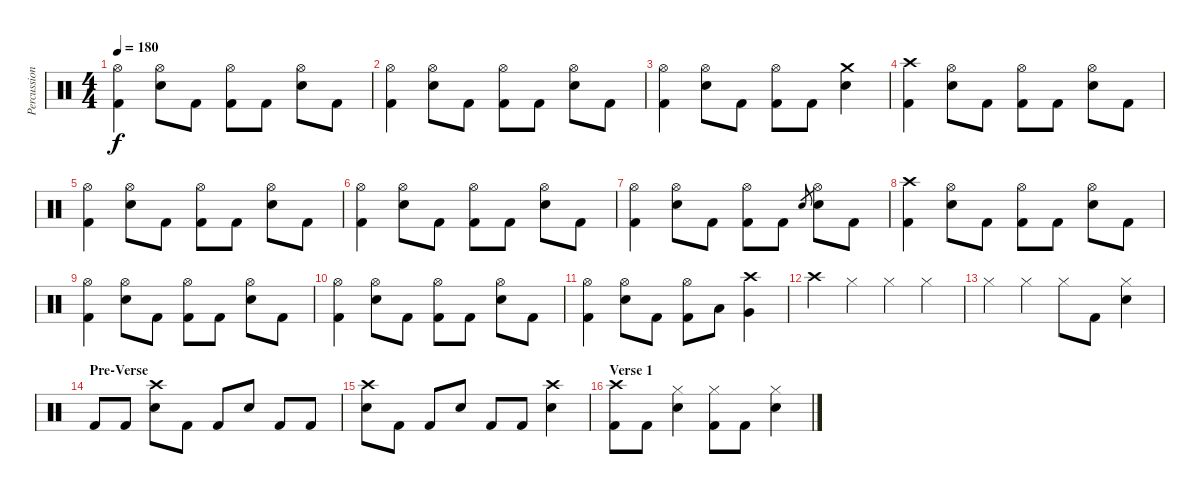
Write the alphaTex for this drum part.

\track ("Percussion" "Percussion") {instrument percussion}
\staff {score}
\articulation defaults
\ts (4 4)
\tempo 180
\clef neutral
\ks c
("Hi-Hat (open)" "Kick (hit) 2").4{dy f} ("Hi-Hat (open)" "Electric Snare (hit)").8 "Kick (hit) 2".8 ("Hi-Hat (open)" "Kick (hit) 2").8 "Kick (hit) 2".8 ("Hi-Hat (open)" "Electric Snare (hit)").8 "Kick (hit) 2".8 |
("Hi-Hat (open)" "Kick (hit) 2").4 ("Hi-Hat (open)" "Electric Snare (hit)").8 "Kick (hit) 2".8 ("Hi-Hat (open)" "Kick (hit) 2").8 "Kick (hit) 2".8 ("Hi-Hat (open)" "Electric Snare (hit)").8 "Kick (hit) 2".8 |
("Hi-Hat (open)" "Kick (hit) 2").4 ("Hi-Hat (open)" "Electric Snare (hit)").8 "Kick (hit) 2".8 ("Hi-Hat (open)" "Kick (hit) 2").8 "Kick (hit) 2".8 ("Crash medium (hit)" "Electric Snare (hit)").4 |
("Crash high (hit)" "Kick (hit) 2").4 ("Hi-Hat (open)" "Electric Snare (hit)").8 "Kick (hit) 2".8 ("Hi-Hat (open)" "Kick (hit) 2").8 "Kick (hit) 2".8 ("Hi-Hat (open)" "Electric Snare (hit)").8 "Kick (hit) 2".8 |
("Hi-Hat (open)" "Kick (hit) 2").4 ("Hi-Hat (open)" "Electric Snare (hit)").8 "Kick (hit) 2".8 ("Hi-Hat (open)" "Kick (hit) 2").8 "Kick (hit) 2".8 ("Hi-Hat (open)" "Electric Snare (hit)").8 "Kick (hit) 2".8 |
("Hi-Hat (open)" "Kick (hit) 2").4 ("Hi-Hat (open)" "Electric Snare (hit)").8 "Kick (hit) 2".8 ("Hi-Hat (open)" "Kick (hit) 2").8 "Kick (hit) 2".8 ("Hi-Hat (open)" "Electric Snare (hit)").8 "Kick (hit) 2".8 |
("Hi-Hat (open)" "Kick (hit) 2").4 ("Hi-Hat (open)" "Electric Snare (hit)").8 "Kick (hit) 2".8 ("Hi-Hat (open)" "Kick (hit) 2").8 "Kick (hit) 2".8 "Electric Snare (hit)".8{gr} ("Hi-Hat (open)" "Electric Snare (hit)").8 "Kick (hit) 2".8 |
("Crash high (hit)" "Kick (hit) 2").4 ("Hi-Hat (open)" "Electric Snare (hit)").8 "Kick (hit) 2".8 ("Hi-Hat (open)" "Kick (hit) 2").8 "Kick (hit) 2".8 ("Hi-Hat (open)" "Electric Snare (hit)").8 "Kick (hit) 2".8 |
("Hi-Hat (open)" "Kick (hit) 2").4 ("Hi-Hat (open)" "Electric Snare (hit)").8 "Kick (hit) 2".8 ("Hi-Hat (open)" "Kick (hit) 2").8 "Kick (hit) 2".8 ("Hi-Hat (open)" "Electric Snare (hit)").8 "Kick (hit) 2".8 |
("Hi-Hat (open)" "Kick (hit) 2").4 ("Hi-Hat (open)" "Electric Snare (hit)").8 "Kick (hit) 2".8 ("Hi-Hat (open)" "Kick (hit) 2").8 "Kick (hit) 2".8 ("Hi-Hat (open)" "Electric Snare (hit)").8 "Kick (hit) 2".8 |
("Hi-Hat (open)" "Kick (hit) 2").4 ("Hi-Hat (open)" "Electric Snare (hit)").8 "Kick (hit) 2".8 ("Hi-Hat (open)" "Kick (hit) 2").8 "Low Tom (hit)".8 ("Crash high (hit)" "Very Low Tom (hit)").4 |
"Crash high (hit)".4 "Hi-Hat (closed)".4 "Hi-Hat (closed)".4 "Hi-Hat (closed)".4 |
"Hi-Hat (closed)".4 "Hi-Hat (closed)".4 "Hi-Hat (closed)".8 "Kick (hit) 2".8 ("Hi-Hat (closed)" "Electric Snare (hit)").4 |
\section ("" "Pre-Verse")
"Kick (hit) 2".8 "Kick (hit) 2".8 ("Crash high (hit)" "Electric Snare (hit)").8 "Kick (hit) 2".8 "Kick (hit) 2".8 "Electric Snare (hit)".8 "Kick (hit) 2".8 "Kick (hit) 2".8 |
("Crash high (hit)" "Electric Snare (hit)").8 "Kick (hit) 2".8 "Kick (hit) 2".8 "Electric Snare (hit)".8 "Kick (hit) 2".8 "Kick (hit) 2".8 ("Crash high (hit)" "Electric Snare (hit)").4 |
\section ("" "Verse 1")
("Crash high (hit)" "Kick (hit) 2").8 "Kick (hit) 2".8 ("Hi-Hat (closed)" "Electric Snare (hit)").4 ("Hi-Hat (closed)" "Kick (hit) 2").8 "Kick (hit) 2".8 ("Hi-Hat (closed)" "Electric Snare (hit)").4
